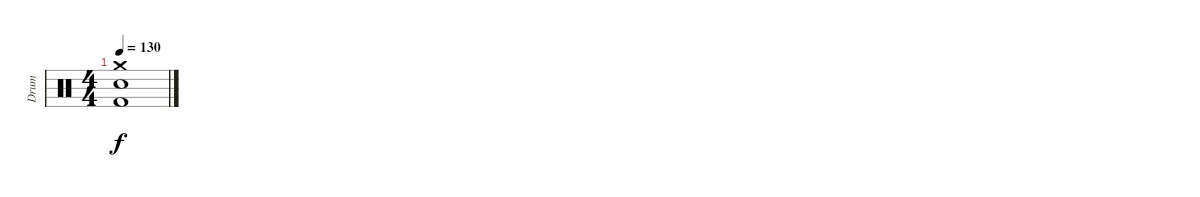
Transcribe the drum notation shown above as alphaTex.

\track ("Drum" "Drum") {instrument percussion}
\staff {score}
\articulation defaults
\ts (4 4)
\tempo 130
\clef neutral
\ks c
("Crash medium (hit)" "Kick (hit) 2" "Snare (hit) 2").1{dy f}
